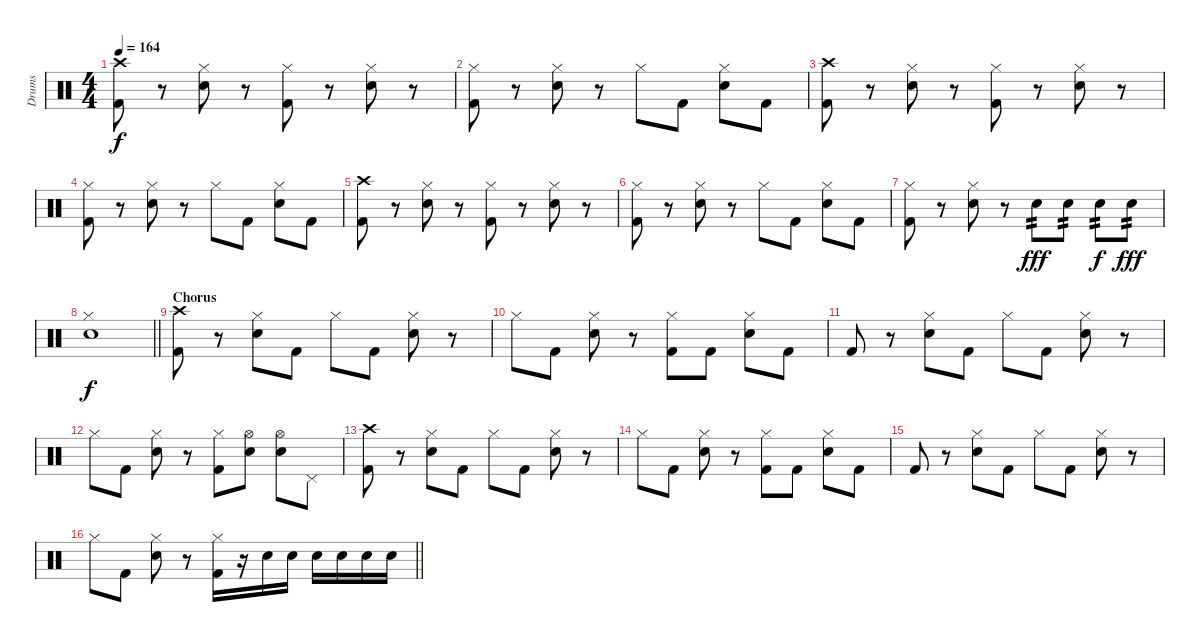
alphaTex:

\track ("Drums" "Drums") {instrument percussion}
\staff {score}
\articulation defaults
\ts (4 4)
\tempo 164
\clef neutral
\ks c
("Crash high (hit)" "Kick (hit) 2").8{dy f} r.8 ("Hi-Hat (closed)" "Snare (hit) 2").8 r.8 ("Hi-Hat (closed)" "Kick (hit) 2").8 r.8 ("Hi-Hat (closed)" "Snare (hit) 2").8 r.8 |
("Hi-Hat (closed)" "Kick (hit) 2").8 r.8 ("Hi-Hat (closed)" "Snare (hit) 2").8 r.8 "Hi-Hat (closed)".8 "Kick (hit) 2".8 ("Hi-Hat (closed)" "Snare (hit) 2").8 "Kick (hit) 2".8 |
("Crash high (hit)" "Kick (hit) 2").8 r.8 ("Hi-Hat (closed)" "Snare (hit) 2").8 r.8 ("Hi-Hat (closed)" "Kick (hit) 2").8 r.8 ("Hi-Hat (closed)" "Snare (hit) 2").8 r.8 |
("Hi-Hat (closed)" "Kick (hit) 2").8 r.8 ("Hi-Hat (closed)" "Snare (hit) 2").8 r.8 "Hi-Hat (closed)".8 "Kick (hit) 2".8 ("Hi-Hat (closed)" "Snare (hit) 2").8 "Kick (hit) 2".8 |
("Crash high (hit)" "Kick (hit) 2").8 r.8 ("Hi-Hat (closed)" "Snare (hit) 2").8 r.8 ("Hi-Hat (closed)" "Kick (hit) 2").8 r.8 ("Hi-Hat (closed)" "Snare (hit) 2").8 r.8 |
("Hi-Hat (closed)" "Kick (hit) 2").8 r.8 ("Hi-Hat (closed)" "Snare (hit) 2").8 r.8 "Hi-Hat (closed)".8 "Kick (hit) 2".8 ("Hi-Hat (closed)" "Snare (hit) 2").8 "Kick (hit) 2".8 |
("Hi-Hat (closed)" "Kick (hit) 2").8 r.8 ("Hi-Hat (closed)" "Snare (hit) 2").8 r.8 "Snare (hit) 2".8{tp 2 dy fff} "Snare (hit) 2".8{tp 2} "Snare (hit) 2".8{tp 2 dy f} "Snare (hit) 2".8{tp 2 dy fff} |
\barLineRight lightlight
("Hi-Hat (closed)" "Snare (hit) 2").1{dy f} |
\section ("" "Chorus")
("Crash high (hit)" "Kick (hit) 2").8 r.8 ("Hi-Hat (closed)" "Snare (hit) 2").8 "Kick (hit) 2".8 "Hi-Hat (closed)".8 "Kick (hit) 2".8 ("Hi-Hat (closed)" "Snare (hit) 2").8 r.8 |
"Hi-Hat (closed)".8 "Kick (hit) 2".8 ("Hi-Hat (closed)" "Snare (hit) 2").8 r.8 ("Hi-Hat (closed)" "Kick (hit) 2").8 "Kick (hit) 2".8 ("Hi-Hat (closed)" "Snare (hit) 2").8 "Kick (hit) 2".8 |
"Kick (hit) 2".8 r.8 ("Hi-Hat (closed)" "Snare (hit) 2").8 "Kick (hit) 2".8 "Hi-Hat (closed)".8 "Kick (hit) 2".8 ("Hi-Hat (closed)" "Snare (hit) 2").8 r.8 |
"Hi-Hat (closed)".8 "Kick (hit) 2".8 ("Hi-Hat (closed)" "Snare (hit) 2").8 r.8 ("Hi-Hat (closed)" "Kick (hit) 2").8 ("Hi-Hat (open)" "Snare (hit) 2").8 ("Hi-Hat (open)" "Snare (hit) 2").8 "Pedal Hi-Hat (hit)".8 |
("Crash high (hit)" "Kick (hit) 2").8 r.8 ("Hi-Hat (closed)" "Snare (hit) 2").8 "Kick (hit) 2".8 "Hi-Hat (closed)".8 "Kick (hit) 2".8 ("Hi-Hat (closed)" "Snare (hit) 2").8 r.8 |
"Hi-Hat (closed)".8 "Kick (hit) 2".8 ("Hi-Hat (closed)" "Snare (hit) 2").8 r.8 ("Hi-Hat (closed)" "Kick (hit) 2").8 "Kick (hit) 2".8 ("Hi-Hat (closed)" "Snare (hit) 2").8 "Kick (hit) 2".8 |
"Kick (hit) 2".8 r.8 ("Hi-Hat (closed)" "Snare (hit) 2").8 "Kick (hit) 2".8 "Hi-Hat (closed)".8 "Kick (hit) 2".8 ("Hi-Hat (closed)" "Snare (hit) 2").8 r.8 |
\barLineRight lightlight "Hi-Hat (closed)".8 "Kick (hit) 2".8
("Hi-Hat (closed)" "Snare (hit) 2").8 r.8 ("Hi-Hat (closed)" "Kick (hit) 2").16 r.16 "Snare (hit) 2".16 "Snare (hit) 2".16 "Snare (hit) 2".16 "Snare (hit) 2".16 "Snare (hit) 2".16 "Snare (hit) 2".16
